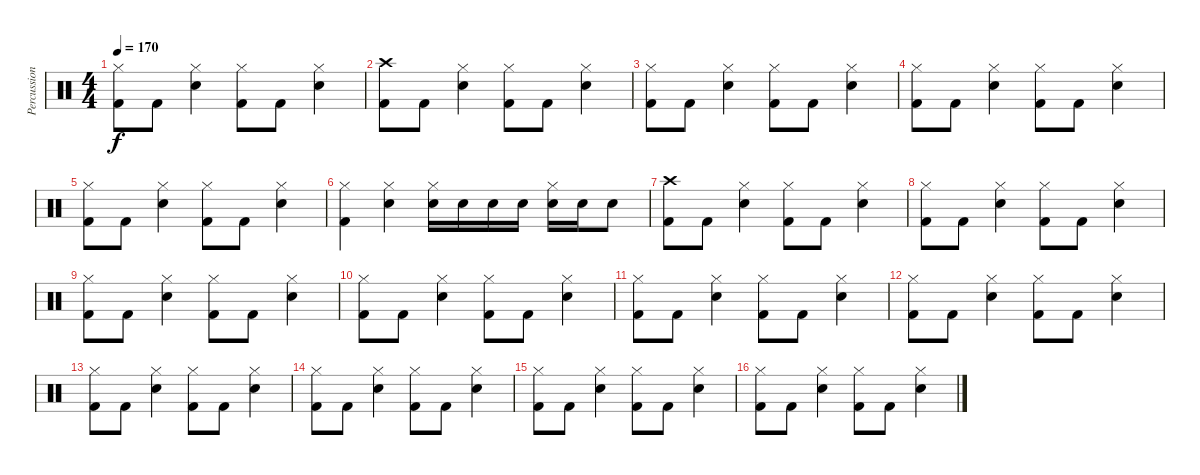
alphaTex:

\track ("Percussion" "Percussion") {instrument percussion}
\staff {score}
\articulation defaults
\ts (4 4)
\tempo 170
\clef neutral
\ks c
("Hi-Hat (closed)" "Kick (hit) 2").8{dy f} "Kick (hit) 2".8 ("Hi-Hat (closed)" "Electric Snare (hit)").4 ("Hi-Hat (closed)" "Kick (hit) 2").8 "Kick (hit) 2".8 ("Hi-Hat (closed)" "Electric Snare (hit)").4 |
("Crash high (hit)" "Kick (hit) 2").8 "Kick (hit) 2".8 ("Hi-Hat (closed)" "Electric Snare (hit)").4 ("Hi-Hat (closed)" "Kick (hit) 2").8 "Kick (hit) 2".8 ("Hi-Hat (closed)" "Electric Snare (hit)").4 |
("Hi-Hat (closed)" "Kick (hit) 2").8 "Kick (hit) 2".8 ("Hi-Hat (closed)" "Electric Snare (hit)").4 ("Hi-Hat (closed)" "Kick (hit) 2").8 "Kick (hit) 2".8 ("Hi-Hat (closed)" "Electric Snare (hit)").4 |
("Hi-Hat (closed)" "Kick (hit) 2").8 "Kick (hit) 2".8 ("Hi-Hat (closed)" "Electric Snare (hit)").4 ("Hi-Hat (closed)" "Kick (hit) 2").8 "Kick (hit) 2".8 ("Hi-Hat (closed)" "Electric Snare (hit)").4 |
("Hi-Hat (closed)" "Kick (hit) 2").8 "Kick (hit) 2".8 ("Hi-Hat (closed)" "Electric Snare (hit)").4 ("Hi-Hat (closed)" "Kick (hit) 2").8 "Kick (hit) 2".8 ("Hi-Hat (closed)" "Electric Snare (hit)").4 |
("Hi-Hat (closed)" "Kick (hit) 2").4 ("Hi-Hat (closed)" "Electric Snare (hit)").4 ("Hi-Hat (closed)" "Electric Snare (hit)").16 "Electric Snare (hit)".16 "Electric Snare (hit)".16 "Electric Snare (hit)".16 ("Hi-Hat (closed)" "Electric Snare (hit)").16 "Electric Snare (hit)".16 "Electric Snare (hit)".8 |
("Crash high (hit)" "Kick (hit) 2").8 "Kick (hit) 2".8 ("Hi-Hat (closed)" "Electric Snare (hit)").4 ("Hi-Hat (closed)" "Kick (hit) 2").8 "Kick (hit) 2".8 ("Hi-Hat (closed)" "Electric Snare (hit)").4 |
("Hi-Hat (closed)" "Kick (hit) 2").8 "Kick (hit) 2".8 ("Hi-Hat (closed)" "Electric Snare (hit)").4 ("Hi-Hat (closed)" "Kick (hit) 2").8 "Kick (hit) 2".8 ("Hi-Hat (closed)" "Electric Snare (hit)").4 |
("Hi-Hat (closed)" "Kick (hit) 2").8 "Kick (hit) 2".8 ("Hi-Hat (closed)" "Electric Snare (hit)").4 ("Hi-Hat (closed)" "Kick (hit) 2").8 "Kick (hit) 2".8 ("Hi-Hat (closed)" "Electric Snare (hit)").4 |
("Hi-Hat (closed)" "Kick (hit) 2").8 "Kick (hit) 2".8 ("Hi-Hat (closed)" "Electric Snare (hit)").4 ("Hi-Hat (closed)" "Kick (hit) 2").8 "Kick (hit) 2".8 ("Hi-Hat (closed)" "Electric Snare (hit)").4 |
("Hi-Hat (closed)" "Kick (hit) 2").8 "Kick (hit) 2".8 ("Hi-Hat (closed)" "Electric Snare (hit)").4 ("Hi-Hat (closed)" "Kick (hit) 2").8 "Kick (hit) 2".8 ("Hi-Hat (closed)" "Electric Snare (hit)").4 |
("Hi-Hat (closed)" "Kick (hit) 2").8 "Kick (hit) 2".8 ("Hi-Hat (closed)" "Electric Snare (hit)").4 ("Hi-Hat (closed)" "Kick (hit) 2").8 "Kick (hit) 2".8 ("Hi-Hat (closed)" "Electric Snare (hit)").4 |
("Hi-Hat (closed)" "Kick (hit) 2").8 "Kick (hit) 2".8 ("Hi-Hat (closed)" "Electric Snare (hit)").4 ("Hi-Hat (closed)" "Kick (hit) 2").8 "Kick (hit) 2".8 ("Hi-Hat (closed)" "Electric Snare (hit)").4 |
("Hi-Hat (closed)" "Kick (hit) 2").8 "Kick (hit) 2".8 ("Hi-Hat (closed)" "Electric Snare (hit)").4 ("Hi-Hat (closed)" "Kick (hit) 2").8 "Kick (hit) 2".8 ("Hi-Hat (closed)" "Electric Snare (hit)").4 |
("Hi-Hat (closed)" "Kick (hit) 2").8 "Kick (hit) 2".8 ("Hi-Hat (closed)" "Electric Snare (hit)").4 ("Hi-Hat (closed)" "Kick (hit) 2").8 "Kick (hit) 2".8 ("Hi-Hat (closed)" "Electric Snare (hit)").4 |
("Hi-Hat (closed)" "Kick (hit) 2").8 "Kick (hit) 2".8 ("Hi-Hat (closed)" "Electric Snare (hit)").4 ("Hi-Hat (closed)" "Kick (hit) 2").8 "Kick (hit) 2".8 ("Hi-Hat (closed)" "Electric Snare (hit)").4
